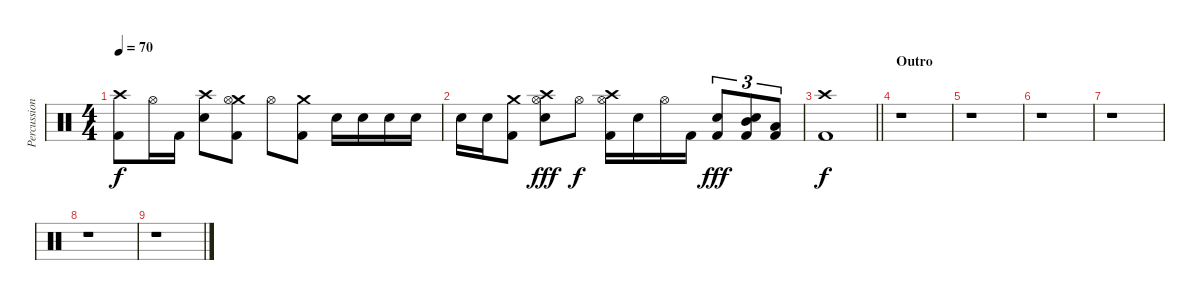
\track ("Percussion" "Percussion") {instrument percussion}
\staff {score}
\articulation defaults
\ts (4 4)
\tempo 70
\clef neutral
\ks c
("Crash high (hit)" "Kick (hit) 2").8{dy f} "Hi-Hat (open)".16 "Kick (hit) 2".16 ("Crash high (hit)" "Snare (hit) 2").8 ("Crash medium (hit)" "Hi-Hat (open)" "Kick (hit) 2").8 "Hi-Hat (open)".8 ("Crash medium (hit)" "Kick (hit) 2").8 "Snare (hit) 2".16 "Snare (hit) 2".16 "Snare (hit) 2".16 "Snare (hit) 2".16 |
"Snare (hit) 2".16 "Snare (hit) 2".16 ("Crash medium (hit)" "Kick (hit) 2").8 ("Crash high (hit)" "Hi-Hat (open)" "Snare (hit) 2").8{dy fff} "Hi-Hat (open)".8{dy f} ("Crash high (hit)" "Hi-Hat (open)" "Kick (hit) 2").16 "Snare (hit) 2".16 "Hi-Hat (open)".16 "Kick (hit) 2".16 ("Snare (hit) 2" "Kick (hit) 2").8{tu (3 2) dy fff} ("Mid Tom (hit)" "Snare (hit) 2" "Kick (hit) 2").8{tu (3 2)} ("Low Tom (hit)" "Kick (hit) 2").8{tu (3 2)} |
\barLineRight lightlight
("Crash high (hit)" "Kick (hit) 2").1{dy f} |
\section ("" "Outro")
r.1 |
r.1 |
r.1 |
r.1 |
r.1 |
r.1
